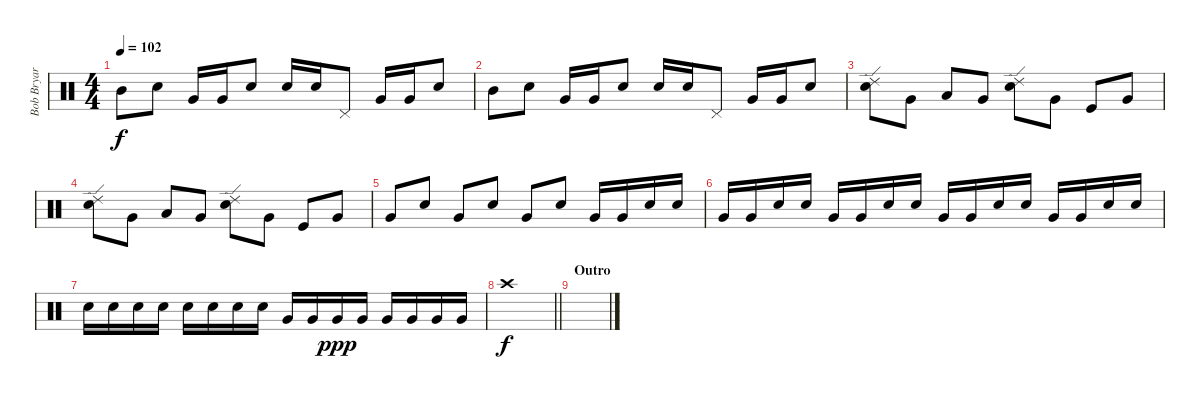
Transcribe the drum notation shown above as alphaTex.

\track ("Bob Bryar" "Bob Bryar") {instrument percussion}
\staff {score}
\articulation defaults
\ts (4 4)
\tempo 102
\clef neutral
\ks c "Mid Tom (hit)".8{dy f} "Electric Snare (hit)".8 "Very Low Tom (hit)".16 "Very Low Tom (hit)".16 "Electric Snare (hit)".8 "Electric Snare (hit)".16 "Electric Snare (hit)".16 "Pedal Hi-Hat (hit)".8 "Very Low Tom (hit)".16 "Very Low Tom (hit)".16 "Electric Snare (hit)".8
|
"Mid Tom (hit)".8 "Electric Snare (hit)".8 "Very Low Tom (hit)".16 "Very Low Tom (hit)".16 "Electric Snare (hit)".8 "Electric Snare (hit)".16 "Electric Snare (hit)".16 "Pedal Hi-Hat (hit)".8 "Very Low Tom (hit)".16 "Very Low Tom (hit)".16 "Electric Snare (hit)".8 |
("Ride (edge) 2" "Electric Snare (hit)").8 "Very Low Tom (hit)".8 "Low Tom (hit)".8 "Very Low Tom (hit)".8 ("Ride (edge) 2" "Electric Snare (hit)").8 "Very Low Tom (hit)".8 "Kick (hit)".8 "Very Low Tom (hit)".8 |
("Ride (edge) 2" "Electric Snare (hit)").8 "Very Low Tom (hit)".8 "Low Tom (hit)".8 "Very Low Tom (hit)".8 ("Ride (edge) 2" "Electric Snare (hit)").8 "Very Low Tom (hit)".8 "Kick (hit)".8 "Very Low Tom (hit)".8 |
"Very Low Tom (hit)".8 "Electric Snare (hit)".8 "Very Low Tom (hit)".8 "Electric Snare (hit)".8 "Very Low Tom (hit)".8 "Electric Snare (hit)".8 "Very Low Tom (hit)".16 "Very Low Tom (hit)".16 "Electric Snare (hit)".16 "Electric Snare (hit)".16 |
"Very Low Tom (hit)".16 "Very Low Tom (hit)".16 "Electric Snare (hit)".16 "Electric Snare (hit)".16 "Very Low Tom (hit)".16 "Very Low Tom (hit)".16 "Electric Snare (hit)".16 "Electric Snare (hit)".16 "Very Low Tom (hit)".16 "Very Low Tom (hit)".16 "Electric Snare (hit)".16 "Electric Snare (hit)".16 "Very Low Tom (hit)".16 "Very Low Tom (hit)".16 "Electric Snare (hit)".16 "Electric Snare (hit)".16 |
"Electric Snare (hit)".16 "Electric Snare (hit)".16 "Electric Snare (hit)".16 "Electric Snare (hit)".16 "Electric Snare (hit)".16 "Electric Snare (hit)".16 "Electric Snare (hit)".16 "Electric Snare (hit)".16 "Very Low Tom (hit)".16 "Very Low Tom (hit)".16 "Very Low Tom (hit)".16{dy ppp} "Very Low Tom (hit)".16 "Very Low Tom (hit)".16 "Very Low Tom (hit)".16 "Very Low Tom (hit)".16 "Very Low Tom (hit)".16 |
\barLineRight lightlight "Crash high (hit)".1{dy f}
|
\section ("" "Outro")
